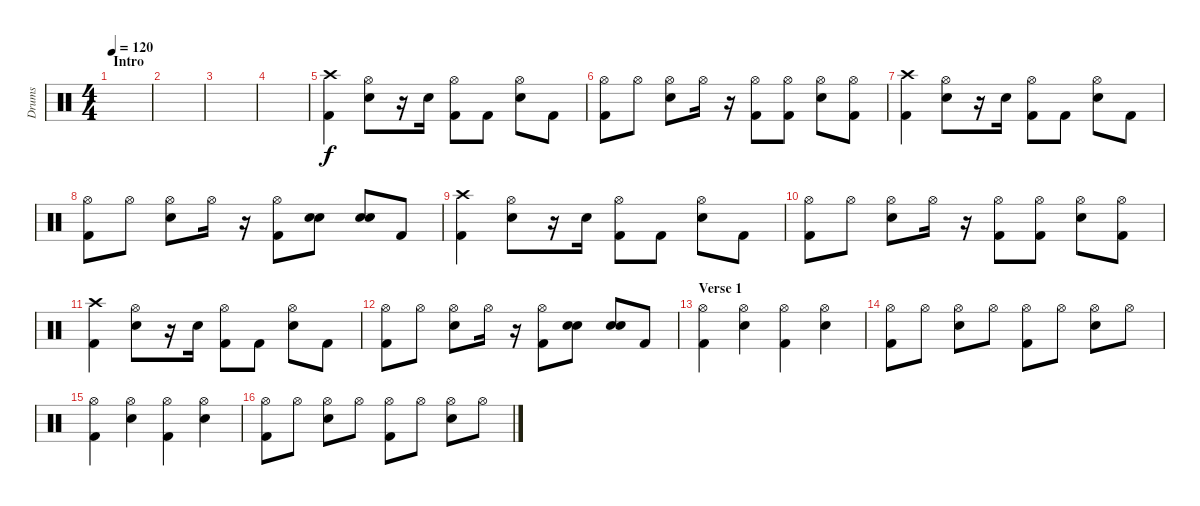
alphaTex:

\track ("Drums" "Drums") {instrument percussion}
\staff {score}
\articulation defaults
\ts (4 4)
\section ("" "Intro")
\tempo 120
\clef neutral
\ks c
|
|
|
|
("Crash high (hit)" "Kick (hit) 2").4 ("Hi-Hat (open)" "Snare (hit) 2").8 r.16 "Snare (hit) 2".16 ("Hi-Hat (open)" "Kick (hit) 2").8 "Kick (hit) 2".8 ("Hi-Hat (open)" "Snare (hit) 2").8 "Kick (hit) 2".8 |
("Hi-Hat (open)" "Kick (hit) 2").8 "Hi-Hat (open)".8 ("Hi-Hat (open)" "Snare (hit) 2").8 "Hi-Hat (open)".16 r.16 ("Hi-Hat (open)" "Kick (hit) 2").8 ("Hi-Hat (open)" "Kick (hit) 2").8 ("Hi-Hat (open)" "Snare (hit) 2").8 ("Hi-Hat (open)" "Kick (hit) 2").8 |
("Crash high (hit)" "Kick (hit) 2").4 ("Hi-Hat (open)" "Snare (hit) 2").8 r.16 "Snare (hit) 2".16 ("Hi-Hat (open)" "Kick (hit) 2").8 "Kick (hit) 2".8 ("Hi-Hat (open)" "Snare (hit) 2").8 "Kick (hit) 2".8 |
("Hi-Hat (open)" "Kick (hit) 2").8 "Hi-Hat (open)".8 ("Hi-Hat (open)" "Snare (hit) 2").8 "Hi-Hat (open)".16 r.16 ("Hi-Hat (open)" "Kick (hit) 2").8 ("Snare (hit) 2" "Snare (hit) 2").8 ("Snare (hit) 2" "Snare (hit) 2").8 "Kick (hit) 2".8 |
("Crash high (hit)" "Kick (hit) 2").4 ("Hi-Hat (open)" "Snare (hit) 2").8 r.16 "Snare (hit) 2".16 ("Hi-Hat (open)" "Kick (hit) 2").8 "Kick (hit) 2".8 ("Hi-Hat (open)" "Snare (hit) 2").8 "Kick (hit) 2".8 |
("Hi-Hat (open)" "Kick (hit) 2").8 "Hi-Hat (open)".8 ("Hi-Hat (open)" "Snare (hit) 2").8 "Hi-Hat (open)".16 r.16 ("Hi-Hat (open)" "Kick (hit) 2").8 ("Hi-Hat (open)" "Kick (hit) 2").8 ("Hi-Hat (open)" "Snare (hit) 2").8 ("Hi-Hat (open)" "Kick (hit) 2").8 |
("Crash high (hit)" "Kick (hit) 2").4 ("Hi-Hat (open)" "Snare (hit) 2").8 r.16 "Snare (hit) 2".16 ("Hi-Hat (open)" "Kick (hit) 2").8 "Kick (hit) 2".8 ("Hi-Hat (open)" "Snare (hit) 2").8 "Kick (hit) 2".8 |
("Hi-Hat (open)" "Kick (hit) 2").8 "Hi-Hat (open)".8 ("Hi-Hat (open)" "Snare (hit) 2").8 "Hi-Hat (open)".16 r.16 ("Hi-Hat (open)" "Kick (hit) 2").8 ("Snare (hit) 2" "Snare (hit) 2").8 ("Snare (hit) 2" "Snare (hit) 2").8 "Kick (hit) 2".8 |
\section ("" "Verse 1")
("Hi-Hat (open)" "Kick (hit) 2").4 ("Hi-Hat (open)" "Snare (hit) 2").4 ("Hi-Hat (open)" "Kick (hit) 2").4 ("Hi-Hat (open)" "Snare (hit) 2").4 |
("Hi-Hat (open)" "Kick (hit) 2").8 "Hi-Hat (open)".8 ("Hi-Hat (open)" "Snare (hit) 2").8 "Hi-Hat (open)".8 ("Hi-Hat (open)" "Kick (hit) 2").8 "Hi-Hat (open)".8 ("Hi-Hat (open)" "Snare (hit) 2").8 "Hi-Hat (open)".8 |
("Hi-Hat (open)" "Kick (hit) 2").4 ("Hi-Hat (open)" "Snare (hit) 2").4 ("Hi-Hat (open)" "Kick (hit) 2").4 ("Hi-Hat (open)" "Snare (hit) 2").4 |
("Hi-Hat (open)" "Kick (hit) 2").8 "Hi-Hat (open)".8 ("Hi-Hat (open)" "Snare (hit) 2").8 "Hi-Hat (open)".8 ("Hi-Hat (open)" "Kick (hit) 2").8 "Hi-Hat (open)".8 ("Hi-Hat (open)" "Snare (hit) 2").8 "Hi-Hat (open)".8
